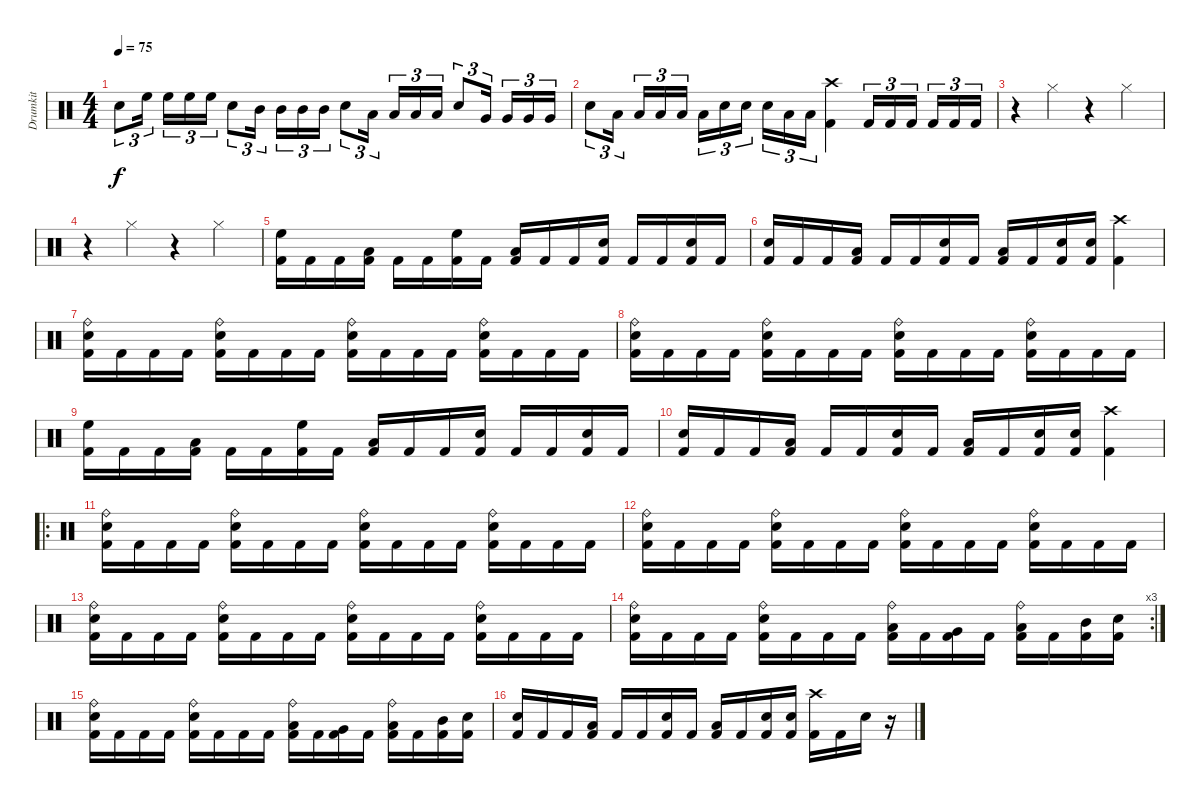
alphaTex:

\track ("Drumkit" "Drumkit") {instrument percussion}
\staff {score}
\articulation defaults
\ts (4 4)
\tempo 75
\clef neutral
\ks c "Snare (hit) 2".8{tu (3 2) dy f} "High Floor Tom (hit)".16{tu (3 2)} "High Floor Tom (hit)".16{tu (3 2)} "High Floor Tom (hit)".16{tu (3 2)} "High Floor Tom (hit)".16{tu (3 2)} "Snare (hit) 2".8{tu (3 2)} "Mid Tom (hit)".16{tu (3 2)} "Mid Tom (hit)".16{tu (3 2)} "Mid Tom (hit)".16{tu (3 2)} "Mid Tom (hit)".16{tu (3 2)} "Snare (hit) 2".8{tu (3 2)} "Low Tom (hit)".16{tu (3 2)} "Low Tom (hit)".16{tu (3 2)} "Low Tom (hit)".16{tu (3 2)} "Low Tom (hit)".16{tu (3 2)} "Snare (hit) 2".8{tu (3 2)} "Very Low Tom (hit)".16{tu (3 2)} "Very Low Tom (hit)".16{tu (3 2)} "Very Low Tom (hit)".16{tu (3 2)} "Very Low Tom (hit)".16{tu (3 2)}
|
"Snare (hit) 2".8{tu (3 2)} "Low Floor Tom (hit)".16{tu (3 2)} "Low Floor Tom (hit)".16{tu (3 2)} "Low Floor Tom (hit)".16{tu (3 2)} "Low Floor Tom (hit)".16{tu (3 2)} "Low Floor Tom (hit)".16{tu (3 2)} "Snare (hit) 2".16{tu (3 2)} "Snare (hit) 2".16{tu (3 2)} "Snare (hit) 2".16{tu (3 2)} "Low Tom (hit)".16{tu (3 2)} "Low Tom (hit)".16{tu (3 2)} ("Crash high (hit)" "Kick (hit) 2").4 "Kick (hit) 2".16{tu (3 2)} "Kick (hit) 2".16{tu (3 2)} "Kick (hit) 2".16{tu (3 2)} "Kick (hit) 2".16{tu (3 2)} "Kick (hit) 2".16{tu (3 2)} "Kick (hit) 2".16{tu (3 2)} |
r.4 "Hi-Hat (closed)".4 r.4 "Hi-Hat (closed)".4 |
r.4 "Hi-Hat (closed)".4 r.4 "Hi-Hat (closed)".4 |
("High Floor Tom (hit)" "Kick (hit) 2").16 "Kick (hit) 2".16 "Kick (hit) 2".16 ("Low Tom (hit)" "Kick (hit) 2").16 "Kick (hit) 2".16 "Kick (hit) 2".16 ("High Floor Tom (hit)" "Kick (hit) 2").16 "Kick (hit) 2".16 ("Low Tom (hit)" "Kick (hit) 2").16 "Kick (hit) 2".16 "Kick (hit) 2".16 ("Snare (hit) 2" "Kick (hit) 2").16 "Kick (hit) 2".16 "Kick (hit) 2".16 ("Snare (hit) 2" "Kick (hit) 2").16 "Kick (hit) 2".16 |
("Snare (hit) 2" "Kick (hit) 2").16 "Kick (hit) 2".16 "Kick (hit) 2".16 ("Low Floor Tom (hit)" "Kick (hit) 2").16 "Kick (hit) 2".16 "Kick (hit) 2".16 ("Snare (hit) 2" "Kick (hit) 2").16 "Kick (hit) 2".16 ("Low Floor Tom (hit)" "Kick (hit) 2").16 "Kick (hit) 2".16 ("Snare (hit) 2" "Kick (hit) 2").16 ("Snare (hit) 2" "Kick (hit) 2").16 ("Crash high (hit)" "Kick (hit) 2").4 |
("Ride (bell)" "Snare (hit) 2" "Kick (hit) 2").16 "Kick (hit) 2".16 "Kick (hit) 2".16 "Kick (hit) 2".16 ("Ride (bell)" "Snare (hit) 2" "Kick (hit) 2").16 "Kick (hit) 2".16 "Kick (hit) 2".16 "Kick (hit) 2".16 ("Ride (bell)" "Snare (hit) 2" "Kick (hit) 2").16 "Kick (hit) 2".16 "Kick (hit) 2".16 "Kick (hit) 2".16 ("Ride (bell)" "Snare (hit) 2" "Kick (hit) 2").16 "Kick (hit) 2".16 "Kick (hit) 2".16 "Kick (hit) 2".16 |
("Ride (bell)" "Snare (hit) 2" "Kick (hit) 2").16 "Kick (hit) 2".16 "Kick (hit) 2".16 "Kick (hit) 2".16 ("Ride (bell)" "Snare (hit) 2" "Kick (hit) 2").16 "Kick (hit) 2".16 "Kick (hit) 2".16 "Kick (hit) 2".16 ("Ride (bell)" "Snare (hit) 2" "Kick (hit) 2").16 "Kick (hit) 2".16 "Kick (hit) 2".16 "Kick (hit) 2".16 ("Ride (bell)" "Snare (hit) 2" "Kick (hit) 2").16 "Kick (hit) 2".16 "Kick (hit) 2".16 "Kick (hit) 2".16 |
("High Floor Tom (hit)" "Kick (hit) 2").16 "Kick (hit) 2".16 "Kick (hit) 2".16 ("Low Tom (hit)" "Kick (hit) 2").16 "Kick (hit) 2".16 "Kick (hit) 2".16 ("High Floor Tom (hit)" "Kick (hit) 2").16 "Kick (hit) 2".16 ("Low Tom (hit)" "Kick (hit) 2").16 "Kick (hit) 2".16 "Kick (hit) 2".16 ("Snare (hit) 2" "Kick (hit) 2").16 "Kick (hit) 2".16 "Kick (hit) 2".16 ("Snare (hit) 2" "Kick (hit) 2").16 "Kick (hit) 2".16 |
("Snare (hit) 2" "Kick (hit) 2").16 "Kick (hit) 2".16 "Kick (hit) 2".16 ("Low Floor Tom (hit)" "Kick (hit) 2").16 "Kick (hit) 2".16 "Kick (hit) 2".16 ("Snare (hit) 2" "Kick (hit) 2").16 "Kick (hit) 2".16 ("Low Floor Tom (hit)" "Kick (hit) 2").16 "Kick (hit) 2".16 ("Snare (hit) 2" "Kick (hit) 2").16 ("Snare (hit) 2" "Kick (hit) 2").16 ("Crash high (hit)" "Kick (hit) 2").4 |
\ro
("Ride (bell)" "Snare (hit) 2" "Kick (hit) 2").16 "Kick (hit) 2".16 "Kick (hit) 2".16 "Kick (hit) 2".16 ("Ride (bell)" "Snare (hit) 2" "Kick (hit) 2").16 "Kick (hit) 2".16 "Kick (hit) 2".16 "Kick (hit) 2".16 ("Ride (bell)" "Snare (hit) 2" "Kick (hit) 2").16 "Kick (hit) 2".16 "Kick (hit) 2".16 "Kick (hit) 2".16 ("Ride (bell)" "Snare (hit) 2" "Kick (hit) 2").16 "Kick (hit) 2".16 "Kick (hit) 2".16 "Kick (hit) 2".16 |
("Ride (bell)" "Snare (hit) 2" "Kick (hit) 2").16 "Kick (hit) 2".16 "Kick (hit) 2".16 "Kick (hit) 2".16 ("Ride (bell)" "Snare (hit) 2" "Kick (hit) 2").16 "Kick (hit) 2".16 "Kick (hit) 2".16 "Kick (hit) 2".16 ("Ride (bell)" "Snare (hit) 2" "Kick (hit) 2").16 "Kick (hit) 2".16 "Kick (hit) 2".16 "Kick (hit) 2".16 ("Ride (bell)" "Snare (hit) 2" "Kick (hit) 2").16 "Kick (hit) 2".16 "Kick (hit) 2".16 "Kick (hit) 2".16 |
("Ride (bell)" "Snare (hit) 2" "Kick (hit) 2").16 "Kick (hit) 2".16 "Kick (hit) 2".16 "Kick (hit) 2".16 ("Ride (bell)" "Snare (hit) 2" "Kick (hit) 2").16 "Kick (hit) 2".16 "Kick (hit) 2".16 "Kick (hit) 2".16 ("Ride (bell)" "Snare (hit) 2" "Kick (hit) 2").16 "Kick (hit) 2".16 "Kick (hit) 2".16 "Kick (hit) 2".16 ("Ride (bell)" "Snare (hit) 2" "Kick (hit) 2").16 "Kick (hit) 2".16 "Kick (hit) 2".16 "Kick (hit) 2".16 |
\rc 3
("Ride (bell)" "Snare (hit) 2" "Kick (hit) 2").16 "Kick (hit) 2".16 "Kick (hit) 2".16 "Kick (hit) 2".16 ("Ride (bell)" "Snare (hit) 2" "Kick (hit) 2").16 "Kick (hit) 2".16 "Kick (hit) 2".16 "Kick (hit) 2".16 ("Ride (bell)" "Low Floor Tom (hit)" "Kick (hit) 2").16 "Kick (hit) 2".16 ("Very Low Tom (hit)" "Kick (hit) 2").16 "Kick (hit) 2".16 ("Ride (bell)" "Low Tom (hit)" "Kick (hit) 2").16 "Kick (hit) 2".16 ("Mid Tom (hit)" "Kick (hit) 2").16 ("Snare (hit) 2" "Kick (hit) 2").16 |
("Ride (bell)" "Snare (hit) 2" "Kick (hit) 2").16 "Kick (hit) 2".16 "Kick (hit) 2".16 "Kick (hit) 2".16 ("Ride (bell)" "Snare (hit) 2" "Kick (hit) 2").16 "Kick (hit) 2".16 "Kick (hit) 2".16 "Kick (hit) 2".16 ("Ride (bell)" "Low Floor Tom (hit)" "Kick (hit) 2").16 "Kick (hit) 2".16 ("Very Low Tom (hit)" "Kick (hit) 2").16 "Kick (hit) 2".16 ("Ride (bell)" "Low Tom (hit)" "Kick (hit) 2").16 "Kick (hit) 2".16 ("Mid Tom (hit)" "Kick (hit) 2").16 ("Snare (hit) 2" "Kick (hit) 2").16 |
("Snare (hit) 2" "Kick (hit) 2").16 "Kick (hit) 2".16 "Kick (hit) 2".16 ("Low Floor Tom (hit)" "Kick (hit) 2").16 "Kick (hit) 2".16 "Kick (hit) 2".16 ("Snare (hit) 2" "Kick (hit) 2").16 "Kick (hit) 2".16 ("Low Floor Tom (hit)" "Kick (hit) 2").16 "Kick (hit) 2".16 ("Snare (hit) 2" "Kick (hit) 2").16 ("Snare (hit) 2" "Kick (hit) 2").16 ("Crash high (hit)" "Kick (hit) 2").16 "Kick (hit) 2".16 "Snare (hit) 2".16 r.16
